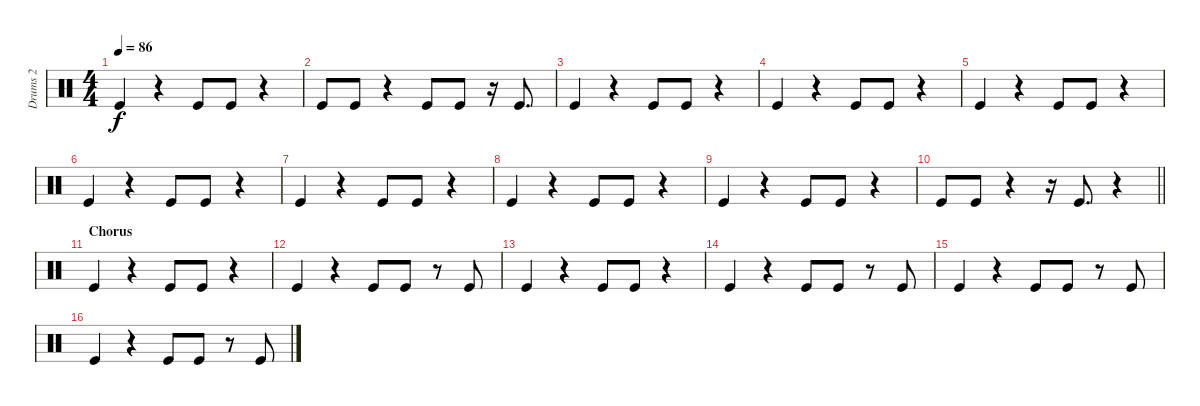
\track ("Drums 2" "Drums 2") {instrument percussion}
\staff {score}
\articulation defaults
\ts (4 4)
\tempo 86
\clef neutral
\ks c "Kick (hit)".4{dy f}
r.4 "Kick (hit)".8 "Kick (hit)".8 r.4 |
"Kick (hit)".8 "Kick (hit)".8 r.4 "Kick (hit)".8 "Kick (hit)".8 r.16 "Kick (hit)".8{d} |
"Kick (hit)".4 r.4 "Kick (hit)".8 "Kick (hit)".8 r.4 |
"Kick (hit)".4 r.4 "Kick (hit)".8 "Kick (hit)".8 r.4 |
"Kick (hit)".4 r.4 "Kick (hit)".8 "Kick (hit)".8 r.4 |
"Kick (hit)".4 r.4 "Kick (hit)".8 "Kick (hit)".8 r.4 |
"Kick (hit)".4 r.4 "Kick (hit)".8 "Kick (hit)".8 r.4 |
"Kick (hit)".4 r.4 "Kick (hit)".8 "Kick (hit)".8 r.4 |
"Kick (hit)".4 r.4 "Kick (hit)".8 "Kick (hit)".8 r.4 |
\barLineRight lightlight "Kick (hit)".8 "Kick (hit)".8
r.4 r.16 "Kick (hit)".8{d} r.4 |
\section ("" "Chorus")
"Kick (hit)".4 r.4 "Kick (hit)".8 "Kick (hit)".8 r.4 |
"Kick (hit)".4 r.4 "Kick (hit)".8 "Kick (hit)".8 r.8 "Kick (hit)".8 |
"Kick (hit)".4 r.4 "Kick (hit)".8 "Kick (hit)".8 r.4 |
"Kick (hit)".4 r.4 "Kick (hit)".8 "Kick (hit)".8 r.8 "Kick (hit)".8 |
"Kick (hit)".4 r.4 "Kick (hit)".8 "Kick (hit)".8 r.8 "Kick (hit)".8 |
"Kick (hit)".4 r.4 "Kick (hit)".8 "Kick (hit)".8 r.8 "Kick (hit)".8
